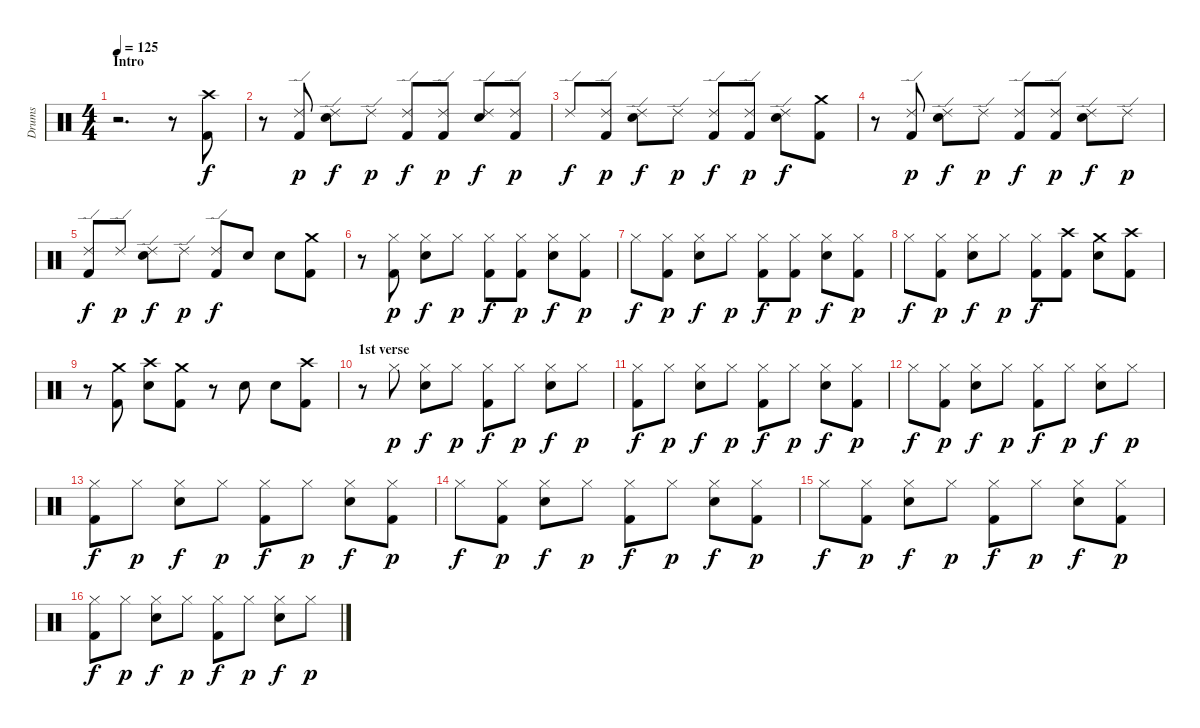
\track ("Drums" "Drums") {instrument percussion}
\staff {score}
\articulation defaults
\ts (4 4)
\section ("" "Intro")
\tempo 125
\clef neutral
\ks c
r.2{d dy f} r.8 ("Crash high (hit)" "Kick (hit) 2").8 |
r.8 ("Ride (edge) 2" "Kick (hit) 2").8{dy p} ("Ride (edge) 2" "Snare (hit) 2").8{dy f} "Ride (edge) 2".8{dy p} ("Ride (edge) 2" "Kick (hit) 2").8{dy f} ("Ride (edge) 2" "Kick (hit) 2").8{dy p} ("Ride (edge) 2" "Snare (hit) 2").8{dy f} ("Ride (edge) 2" "Kick (hit) 2").8{dy p} |
"Ride (edge) 2".8{dy f} ("Ride (edge) 2" "Kick (hit) 2").8{dy p} ("Ride (edge) 2" "Snare (hit) 2").8{dy f} "Ride (edge) 2".8{dy p} ("Ride (edge) 2" "Kick (hit) 2").8{dy f} ("Ride (edge) 2" "Kick (hit) 2").8{dy p} ("Ride (edge) 2" "Snare (hit) 2").8{dy f} ("Crash medium (hit)" "Kick (hit) 2").8 |
r.8 ("Ride (edge) 2" "Kick (hit) 2").8{dy p} ("Ride (edge) 2" "Snare (hit) 2").8{dy f} "Ride (edge) 2".8{dy p} ("Ride (edge) 2" "Kick (hit) 2").8{dy f} ("Ride (edge) 2" "Kick (hit) 2").8{dy p} ("Ride (edge) 2" "Snare (hit) 2").8{dy f} "Ride (edge) 2".8{dy p} |
("Ride (edge) 2" "Kick (hit) 2").8{dy f} "Ride (edge) 2".8{dy p} ("Ride (edge) 2" "Snare (hit) 2").8{dy f} "Ride (edge) 2".8{dy p} ("Ride (edge) 2" "Kick (hit) 2").8{dy f} "Snare (hit) 2".8 "Snare (hit) 2".8 ("Crash medium (hit)" "Kick (hit) 2").8 |
r.8 ("Hi-Hat (closed)" "Kick (hit) 2").8{dy p} ("Hi-Hat (closed)" "Snare (hit) 2").8{dy f} "Hi-Hat (closed)".8{dy p} ("Hi-Hat (closed)" "Kick (hit) 2").8{dy f} ("Hi-Hat (closed)" "Kick (hit) 2").8{dy p} ("Hi-Hat (closed)" "Snare (hit) 2").8{dy f} ("Hi-Hat (closed)" "Kick (hit) 2").8{dy p} |
"Hi-Hat (closed)".8{dy f} ("Hi-Hat (closed)" "Kick (hit) 2").8{dy p} ("Hi-Hat (closed)" "Snare (hit) 2").8{dy f} "Hi-Hat (closed)".8{dy p} ("Hi-Hat (closed)" "Kick (hit) 2").8{dy f} ("Hi-Hat (closed)" "Kick (hit) 2").8{dy p} ("Hi-Hat (closed)" "Snare (hit) 2").8{dy f} ("Hi-Hat (closed)" "Kick (hit) 2").8{dy p} |
"Hi-Hat (closed)".8{dy f} ("Hi-Hat (closed)" "Kick (hit) 2").8{dy p} ("Hi-Hat (closed)" "Snare (hit) 2").8{dy f} "Hi-Hat (closed)".8{dy p} ("Hi-Hat (closed)" "Kick (hit) 2").8{dy f} ("Crash high (hit)" "Kick (hit) 2").8 ("Crash medium (hit)" "Snare (hit) 2").8 ("Crash high (hit)" "Kick (hit) 2").8 |
r.8 ("Crash medium (hit)" "Kick (hit) 2").8 ("Crash high (hit)" "Snare (hit) 2").8 ("Crash medium (hit)" "Kick (hit) 2").8 r.8 "Snare (hit) 2".8 "Snare (hit) 2".8 ("Crash high (hit)" "Kick (hit) 2").8 |
\section ("" "1st verse")
r.8 "Hi-Hat (closed)".8{dy p} ("Hi-Hat (closed)" "Snare (hit) 2").8{dy f} "Hi-Hat (closed)".8{dy p} ("Hi-Hat (closed)" "Kick (hit) 2").8{dy f} "Hi-Hat (closed)".8{dy p} ("Hi-Hat (closed)" "Snare (hit) 2").8{dy f} "Hi-Hat (closed)".8{dy p} |
("Hi-Hat (closed)" "Kick (hit) 2").8{dy f} "Hi-Hat (closed)".8{dy p} ("Hi-Hat (closed)" "Snare (hit) 2").8{dy f} "Hi-Hat (closed)".8{dy p} ("Hi-Hat (closed)" "Kick (hit) 2").8{dy f} "Hi-Hat (closed)".8{dy p} ("Hi-Hat (closed)" "Snare (hit) 2").8{dy f} ("Hi-Hat (closed)" "Kick (hit) 2").8{dy p} |
"Hi-Hat (closed)".8{dy f} ("Hi-Hat (closed)" "Kick (hit) 2").8{dy p} ("Hi-Hat (closed)" "Snare (hit) 2").8{dy f} "Hi-Hat (closed)".8{dy p} ("Hi-Hat (closed)" "Kick (hit) 2").8{dy f} "Hi-Hat (closed)".8{dy p} ("Hi-Hat (closed)" "Snare (hit) 2").8{dy f} "Hi-Hat (closed)".8{dy p} |
("Hi-Hat (closed)" "Kick (hit) 2").8{dy f} "Hi-Hat (closed)".8{dy p} ("Hi-Hat (closed)" "Snare (hit) 2").8{dy f} "Hi-Hat (closed)".8{dy p} ("Hi-Hat (closed)" "Kick (hit) 2").8{dy f} "Hi-Hat (closed)".8{dy p} ("Hi-Hat (closed)" "Snare (hit) 2").8{dy f} ("Hi-Hat (closed)" "Kick (hit) 2").8{dy p} |
"Hi-Hat (closed)".8{dy f} ("Hi-Hat (closed)" "Kick (hit) 2").8{dy p} ("Hi-Hat (closed)" "Snare (hit) 2").8{dy f} "Hi-Hat (closed)".8{dy p} ("Hi-Hat (closed)" "Kick (hit) 2").8{dy f} "Hi-Hat (closed)".8{dy p} ("Hi-Hat (closed)" "Snare (hit) 2").8{dy f} ("Hi-Hat (closed)" "Kick (hit) 2").8{dy p} |
"Hi-Hat (closed)".8{dy f} ("Hi-Hat (closed)" "Kick (hit) 2").8{dy p} ("Hi-Hat (closed)" "Snare (hit) 2").8{dy f} "Hi-Hat (closed)".8{dy p} ("Hi-Hat (closed)" "Kick (hit) 2").8{dy f} "Hi-Hat (closed)".8{dy p} ("Hi-Hat (closed)" "Snare (hit) 2").8{dy f} ("Hi-Hat (closed)" "Kick (hit) 2").8{dy p} |
("Hi-Hat (closed)" "Kick (hit) 2").8{dy f} "Hi-Hat (closed)".8{dy p} ("Hi-Hat (closed)" "Snare (hit) 2").8{dy f} "Hi-Hat (closed)".8{dy p} ("Hi-Hat (closed)" "Kick (hit) 2").8{dy f} "Hi-Hat (closed)".8{dy p} ("Hi-Hat (closed)" "Snare (hit) 2").8{dy f} "Hi-Hat (closed)".8{dy p}
